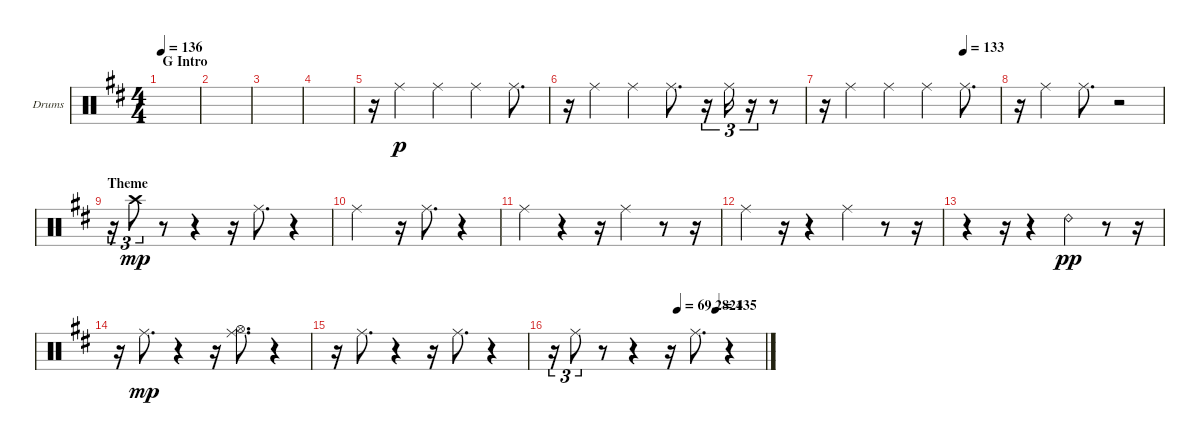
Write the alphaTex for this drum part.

\bracketExtendMode groupsimilarinstruments
\firstSystemTrackNameOrientation horizontal
\otherSystemsTrackNameOrientation horizontal
\track ("OH" "Drums") {instrument percussion}
\staff {score}
\articulation defaults
\ts (4 4)
\section ("" "G Intro")
\tempo 136
\clef neutral
\ks d
|
|
|
|
r.16 "Ride (middle)".4{dy p} "Ride (middle)".4 "Ride (middle)".4 "Ride (middle)".8{d} |
r.16 "Ride (middle)".4 "Ride (middle)".4 "Ride (middle)".8{d} r.16{tu (3 2)} "Ride (middle)".16{tu (3 2)} r.16{tu (3 2)} r.8 |
\tempo (133 0.79375)
r.16 "Ride (middle)".4 "Ride (middle)".4 "Ride (middle)".4 "Ride (middle)".8{d} |
r.16 "Ride (middle)".4 "Ride (middle)".8{d} r.2 |
\section ("" "Theme")
r.16{tu (3 2)} "Crash high (hit)".8{tu (3 2) dy mp} r.8 r.4 r.16 "Ride (middle)".8{d} r.4 |
"Ride (middle)".2 r.16 "Ride (middle)".8{d} r.4 |
"Ride (middle)".4 r.4 r.16 "Ride (middle)".4 r.8 r.16 |
"Ride (middle)".4 r.16 r.4 "Ride (middle)".4 r.8 r.16 |
r.4 r.16 r.4 "Ride (bell) 2".4{dy pp} r.8 r.16 |
r.16 "Ride (middle)".8{d dy mp} r.4 r.16 ("Ride (middle)" "Hi-Hat (open)").8{d} r.4 |
r.16 "Ride (middle)".8{d} r.4 r.16 "Ride (middle)".8{d} r.4 |
\tempo (69.2824 0.5875)
\tempo (135 0.76875)
\scale
0.416988 r.16{tu (3 2)} "Ride (middle)".8{tu (3 2)} r.8 r.4 r.16 "Ride (middle)".8{d} r.4
